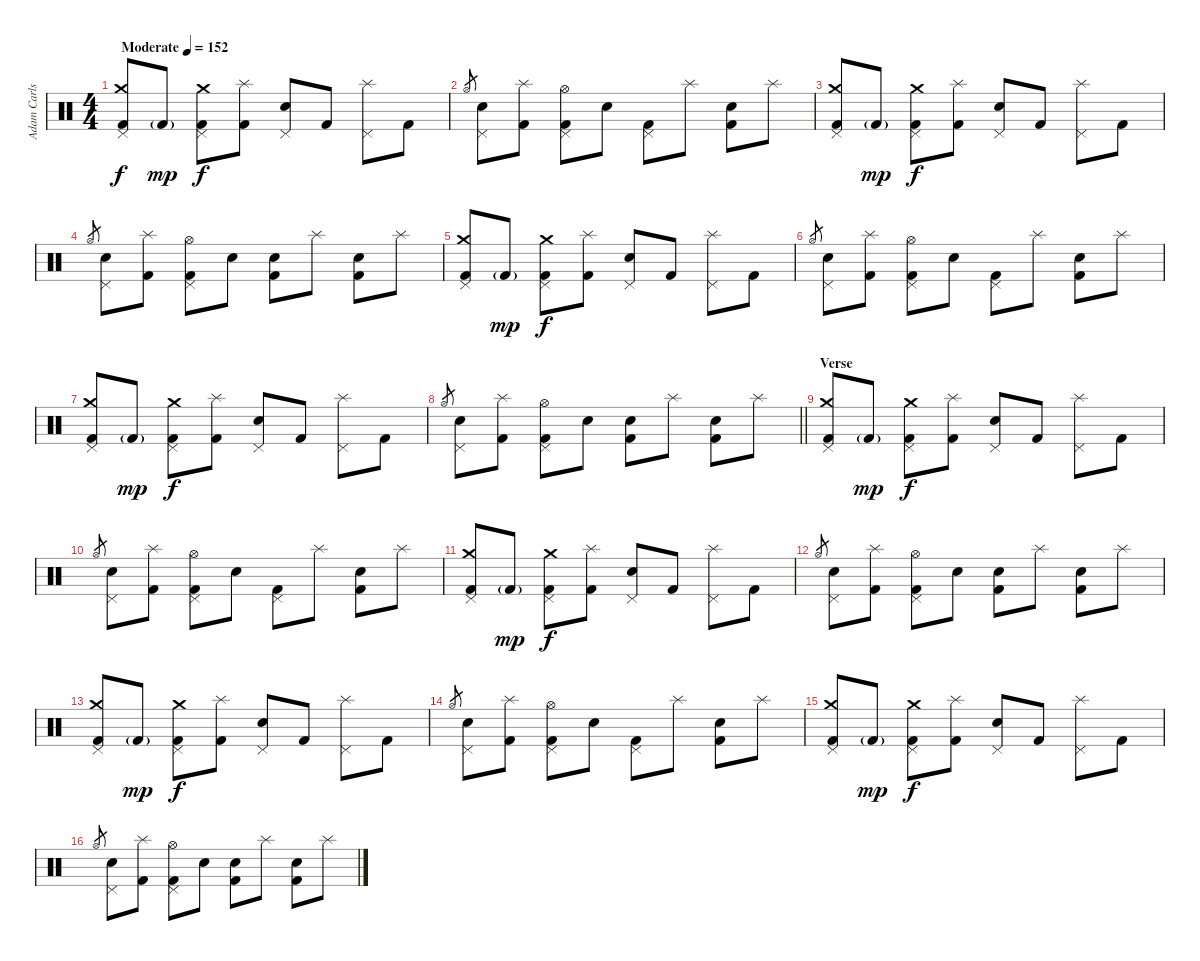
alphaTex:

\track ("Adam Carlson" "Adam Carls") {instrument percussion}
\staff {score}
\articulation defaults
\ts (4 4)
\tempo (152 "Moderate")
\clef neutral
\ks c
("Pedal Hi-Hat (hit)" "Crash medium (hit)" "Kick (hit) 2").8{dy f} "Kick (hit) 2"{g}.8{dy mp} ("Pedal Hi-Hat (hit)" "Crash medium (hit)" "Kick (hit) 2").8{dy f} ("Splash (hit)" "Kick (hit) 2").8 ("Pedal Hi-Hat (hit)" "Electric Snare (hit)").8 "Kick (hit) 2".8 ("Pedal Hi-Hat (hit)" "Splash (hit)").8 "Kick (hit) 2".8 |
"Hi-Hat (open)".8{gr} ("Pedal Hi-Hat (hit)" "Electric Snare (hit)").8 ("Splash (hit)" "Kick (hit) 2").8 ("Pedal Hi-Hat (hit)" "Hi-Hat (open)" "Kick (hit) 2").8 "Electric Snare (hit)".8 ("Pedal Hi-Hat (hit)" "Kick (hit) 2").8 "Splash (hit)".8 ("Electric Snare (hit)" "Kick (hit) 2").8 "Splash (hit)".8 |
("Pedal Hi-Hat (hit)" "Crash medium (hit)" "Kick (hit) 2").8 "Kick (hit) 2"{g}.8{dy mp} ("Pedal Hi-Hat (hit)" "Crash medium (hit)" "Kick (hit) 2").8{dy f} ("Splash (hit)" "Kick (hit) 2").8 ("Pedal Hi-Hat (hit)" "Electric Snare (hit)").8 "Kick (hit) 2".8 ("Pedal Hi-Hat (hit)" "Splash (hit)").8 "Kick (hit) 2".8 |
"Hi-Hat (open)".8{gr} ("Pedal Hi-Hat (hit)" "Electric Snare (hit)").8 ("Splash (hit)" "Kick (hit) 2").8 ("Pedal Hi-Hat (hit)" "Hi-Hat (open)" "Kick (hit) 2").8 "Electric Snare (hit)".8 ("Electric Snare (hit)" "Kick (hit) 2").8 "Splash (hit)".8 ("Electric Snare (hit)" "Kick (hit) 2").8 "Splash (hit)".8 |
("Pedal Hi-Hat (hit)" "Crash medium (hit)" "Kick (hit) 2").8 "Kick (hit) 2"{g}.8{dy mp} ("Pedal Hi-Hat (hit)" "Crash medium (hit)" "Kick (hit) 2").8{dy f} ("Splash (hit)" "Kick (hit) 2").8 ("Pedal Hi-Hat (hit)" "Electric Snare (hit)").8 "Kick (hit) 2".8 ("Pedal Hi-Hat (hit)" "Splash (hit)").8 "Kick (hit) 2".8 |
"Hi-Hat (open)".8{gr} ("Pedal Hi-Hat (hit)" "Electric Snare (hit)").8 ("Splash (hit)" "Kick (hit) 2").8 ("Pedal Hi-Hat (hit)" "Hi-Hat (open)" "Kick (hit) 2").8 "Electric Snare (hit)".8 ("Pedal Hi-Hat (hit)" "Kick (hit) 2").8 "Splash (hit)".8 ("Electric Snare (hit)" "Kick (hit) 2").8 "Splash (hit)".8 |
("Pedal Hi-Hat (hit)" "Crash medium (hit)" "Kick (hit) 2").8 "Kick (hit) 2"{g}.8{dy mp} ("Pedal Hi-Hat (hit)" "Crash medium (hit)" "Kick (hit) 2").8{dy f} ("Splash (hit)" "Kick (hit) 2").8 ("Pedal Hi-Hat (hit)" "Electric Snare (hit)").8 "Kick (hit) 2".8 ("Pedal Hi-Hat (hit)" "Splash (hit)").8 "Kick (hit) 2".8 |
\barLineRight lightlight "Hi-Hat (open)".8{gr}
("Pedal Hi-Hat (hit)" "Electric Snare (hit)").8 ("Splash (hit)" "Kick (hit) 2").8 ("Pedal Hi-Hat (hit)" "Hi-Hat (open)" "Kick (hit) 2").8 "Electric Snare (hit)".8 ("Electric Snare (hit)" "Kick (hit) 2").8 "Splash (hit)".8 ("Electric Snare (hit)" "Kick (hit) 2").8 "Splash (hit)".8 |
\section ("" "Verse")
("Pedal Hi-Hat (hit)" "Crash medium (hit)" "Kick (hit) 2").8 "Kick (hit) 2"{g}.8{dy mp} ("Pedal Hi-Hat (hit)" "Crash medium (hit)" "Kick (hit) 2").8{dy f} ("Splash (hit)" "Kick (hit) 2").8 ("Pedal Hi-Hat (hit)" "Electric Snare (hit)").8 "Kick (hit) 2".8 ("Pedal Hi-Hat (hit)" "Splash (hit)").8 "Kick (hit) 2".8 |
"Hi-Hat (open)".8{gr} ("Pedal Hi-Hat (hit)" "Electric Snare (hit)").8 ("Splash (hit)" "Kick (hit) 2").8 ("Pedal Hi-Hat (hit)" "Hi-Hat (open)" "Kick (hit) 2").8 "Electric Snare (hit)".8 ("Pedal Hi-Hat (hit)" "Kick (hit) 2").8 "Splash (hit)".8 ("Electric Snare (hit)" "Kick (hit) 2").8 "Splash (hit)".8 |
("Pedal Hi-Hat (hit)" "Crash medium (hit)" "Kick (hit) 2").8 "Kick (hit) 2"{g}.8{dy mp} ("Pedal Hi-Hat (hit)" "Crash medium (hit)" "Kick (hit) 2").8{dy f} ("Splash (hit)" "Kick (hit) 2").8 ("Pedal Hi-Hat (hit)" "Electric Snare (hit)").8 "Kick (hit) 2".8 ("Pedal Hi-Hat (hit)" "Splash (hit)").8 "Kick (hit) 2".8 |
"Hi-Hat (open)".8{gr} ("Pedal Hi-Hat (hit)" "Electric Snare (hit)").8 ("Splash (hit)" "Kick (hit) 2").8 ("Pedal Hi-Hat (hit)" "Hi-Hat (open)" "Kick (hit) 2").8 "Electric Snare (hit)".8 ("Electric Snare (hit)" "Kick (hit) 2").8 "Splash (hit)".8 ("Electric Snare (hit)" "Kick (hit) 2").8 "Splash (hit)".8 |
("Pedal Hi-Hat (hit)" "Crash medium (hit)" "Kick (hit) 2").8 "Kick (hit) 2"{g}.8{dy mp} ("Pedal Hi-Hat (hit)" "Crash medium (hit)" "Kick (hit) 2").8{dy f} ("Splash (hit)" "Kick (hit) 2").8 ("Pedal Hi-Hat (hit)" "Electric Snare (hit)").8 "Kick (hit) 2".8 ("Pedal Hi-Hat (hit)" "Splash (hit)").8 "Kick (hit) 2".8 |
"Hi-Hat (open)".8{gr} ("Pedal Hi-Hat (hit)" "Electric Snare (hit)").8 ("Splash (hit)" "Kick (hit) 2").8 ("Pedal Hi-Hat (hit)" "Hi-Hat (open)" "Kick (hit) 2").8 "Electric Snare (hit)".8 ("Pedal Hi-Hat (hit)" "Kick (hit) 2").8 "Splash (hit)".8 ("Electric Snare (hit)" "Kick (hit) 2").8 "Splash (hit)".8 |
("Pedal Hi-Hat (hit)" "Crash medium (hit)" "Kick (hit) 2").8 "Kick (hit) 2"{g}.8{dy mp} ("Pedal Hi-Hat (hit)" "Crash medium (hit)" "Kick (hit) 2").8{dy f} ("Splash (hit)" "Kick (hit) 2").8 ("Pedal Hi-Hat (hit)" "Electric Snare (hit)").8 "Kick (hit) 2".8 ("Pedal Hi-Hat (hit)" "Splash (hit)").8 "Kick (hit) 2".8 |
"Hi-Hat (open)".8{gr} ("Pedal Hi-Hat (hit)" "Electric Snare (hit)").8 ("Splash (hit)" "Kick (hit) 2").8 ("Pedal Hi-Hat (hit)" "Hi-Hat (open)" "Kick (hit) 2").8 "Electric Snare (hit)".8 ("Electric Snare (hit)" "Kick (hit) 2").8 "Splash (hit)".8 ("Electric Snare (hit)" "Kick (hit) 2").8 "Splash (hit)".8
